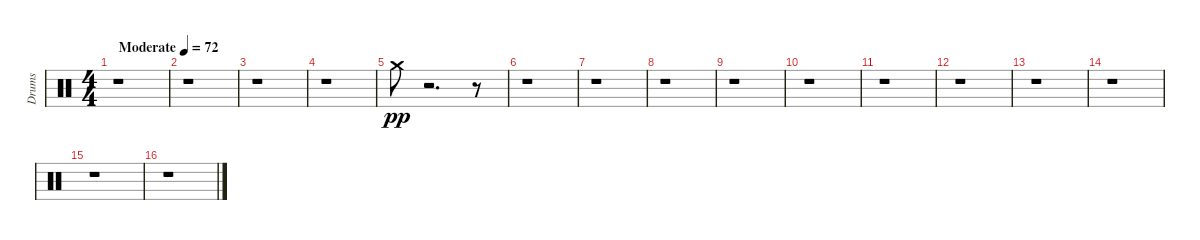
\track ("Drums" "Drums") {instrument percussion}
\staff {score}
\articulation defaults
\ts (4 4)
\tempo (72 "Moderate")
\clef neutral
\ks c
r.1{dy pp} |
r.1 |
r.1 |
r.1 |
"Crash medium (hit)".8 r.2{d} r.8 |
r.1 |
r.1 |
r.1 |
r.1 |
r.1 |
r.1 |
r.1 |
r.1 |
r.1 |
r.1 |
r.1
